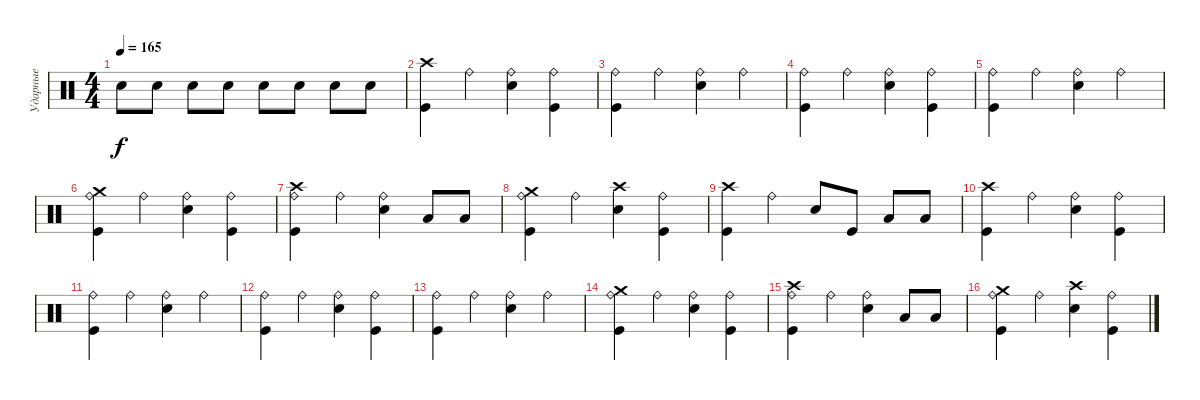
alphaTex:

\track ("Ударные" "Ударные") {instrument percussion}
\staff {score}
\articulation defaults
\ts (4 4)
\tempo 165
\clef neutral
\ks c "Electric Snare (hit)".8{dy f} "Electric Snare (hit)".8 "Electric Snare (hit)".8 "Electric Snare (hit)".8 "Electric Snare (hit)".8 "Electric Snare (hit)".8 "Electric Snare (hit)".8 "Electric Snare (hit)".8
|
("Crash high (hit)" "Kick (hit)").4 "Ride (bell)".4 ("Ride (bell)" "Electric Snare (hit)").4 ("Ride (bell)" "Kick (hit)").4 |
("Ride (bell)" "Kick (hit)").4 "Ride (bell)".4 ("Ride (bell)" "Electric Snare (hit)").4 "Ride (bell)".4 |
("Ride (bell)" "Kick (hit)").4 "Ride (bell)".4 ("Ride (bell)" "Electric Snare (hit)").4 ("Ride (bell)" "Kick (hit)").4 |
("Ride (bell)" "Kick (hit)").4 "Ride (bell)".4 ("Ride (bell)" "Electric Snare (hit)").4 "Ride (bell)".4 |
("Crash medium (hit)" "Ride (bell)" "Kick (hit)").4 "Ride (bell)".4 ("Ride (bell)" "Electric Snare (hit)").4 ("Ride (bell)" "Kick (hit)").4 |
("Crash high (hit)" "Ride (bell)" "Kick (hit)").4 "Ride (bell)".4 ("Ride (bell)" "Electric Snare (hit)").4 "Low Tom (hit)".8 "Low Tom (hit)".8 |
("Crash medium (hit)" "Ride (bell)" "Kick (hit)").4 "Ride (bell)".4 ("Crash high (hit)" "Electric Snare (hit)").4 ("Ride (bell)" "Kick (hit)").4 |
("Crash high (hit)" "Kick (hit)").4 "Ride (bell)".4 "Electric Snare (hit)".8 "Kick (hit)".8 "Low Tom (hit)".8 "Low Tom (hit)".8 |
("Crash high (hit)" "Kick (hit)").4 "Ride (bell)".4 ("Ride (bell)" "Electric Snare (hit)").4 ("Ride (bell)" "Kick (hit)").4 |
("Ride (bell)" "Kick (hit)").4 "Ride (bell)".4 ("Ride (bell)" "Electric Snare (hit)").4 "Ride (bell)".4 |
("Ride (bell)" "Kick (hit)").4 "Ride (bell)".4 ("Ride (bell)" "Electric Snare (hit)").4 ("Ride (bell)" "Kick (hit)").4 |
("Ride (bell)" "Kick (hit)").4 "Ride (bell)".4 ("Ride (bell)" "Electric Snare (hit)").4 "Ride (bell)".4 |
("Crash medium (hit)" "Ride (bell)" "Kick (hit)").4 "Ride (bell)".4 ("Ride (bell)" "Electric Snare (hit)").4 ("Ride (bell)" "Kick (hit)").4 |
("Crash high (hit)" "Ride (bell)" "Kick (hit)").4 "Ride (bell)".4 ("Ride (bell)" "Electric Snare (hit)").4 "Low Tom (hit)".8 "Low Tom (hit)".8 |
("Crash medium (hit)" "Ride (bell)" "Kick (hit)").4 "Ride (bell)".4 ("Crash high (hit)" "Electric Snare (hit)").4 ("Ride (bell)" "Kick (hit)").4
